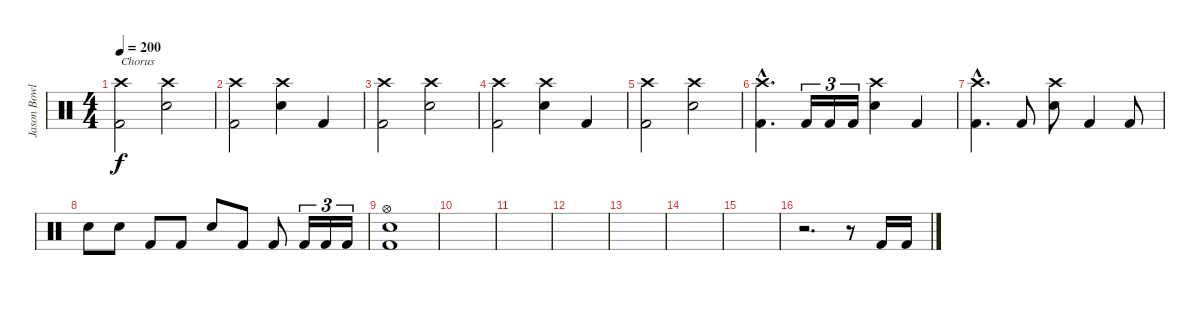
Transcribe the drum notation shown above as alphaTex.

\track ("Jason Bowld" "Jason Bowl") {instrument percussion}
\staff {score}
\articulation defaults
\ts (4 4)
\tempo 200
\clef neutral
\ks c
("Crash high (hit)" "Kick (hit) 2").2{txt "Chorus" dy f} ("Crash high (hit)" "Snare (hit) 2").2 |
("Crash high (hit)" "Kick (hit) 2").2 ("Crash high (hit)" "Snare (hit) 2").4 "Kick (hit) 2".4 |
("Crash high (hit)" "Kick (hit) 2").2 ("Crash high (hit)" "Snare (hit) 2").2 |
("Crash high (hit)" "Kick (hit) 2").2 ("Crash high (hit)" "Snare (hit) 2").4 "Kick (hit) 2".4 |
("Crash high (hit)" "Kick (hit) 2").2 ("Crash high (hit)" "Snare (hit) 2").2 |
("Crash high (hit)"{hac} "Kick (hit) 2"{hac}).4{d} "Kick (hit) 2".16{tu (3 2)} "Kick (hit) 2".16{tu (3 2)} "Kick (hit) 2".16{tu (3 2)} ("Crash high (hit)" "Snare (hit) 2").4 "Kick (hit) 2".4 |
("Crash high (hit)"{hac} "Kick (hit) 2"{hac}).4{d} "Kick (hit) 2".8 ("Crash high (hit)" "Snare (hit) 2").8 "Kick (hit) 2".4 "Kick (hit) 2".8 |
"Snare (hit) 2".8 "Snare (hit) 2".8 "Kick (hit) 2".8 "Kick (hit) 2".8 "Snare (hit) 2".8 "Kick (hit) 2".8 "Kick (hit) 2".8 "Kick (hit) 2".16{tu (3 2)} "Kick (hit) 2".16{tu (3 2)} "Kick (hit) 2".16{tu (3 2)} |
("Hi-Hat (open)" "Snare (hit) 2" "Kick (hit) 2").1 |
|
|
|
|
|
|
r.2{d} r.8 "Kick (hit) 2".16 "Kick (hit) 2".16
